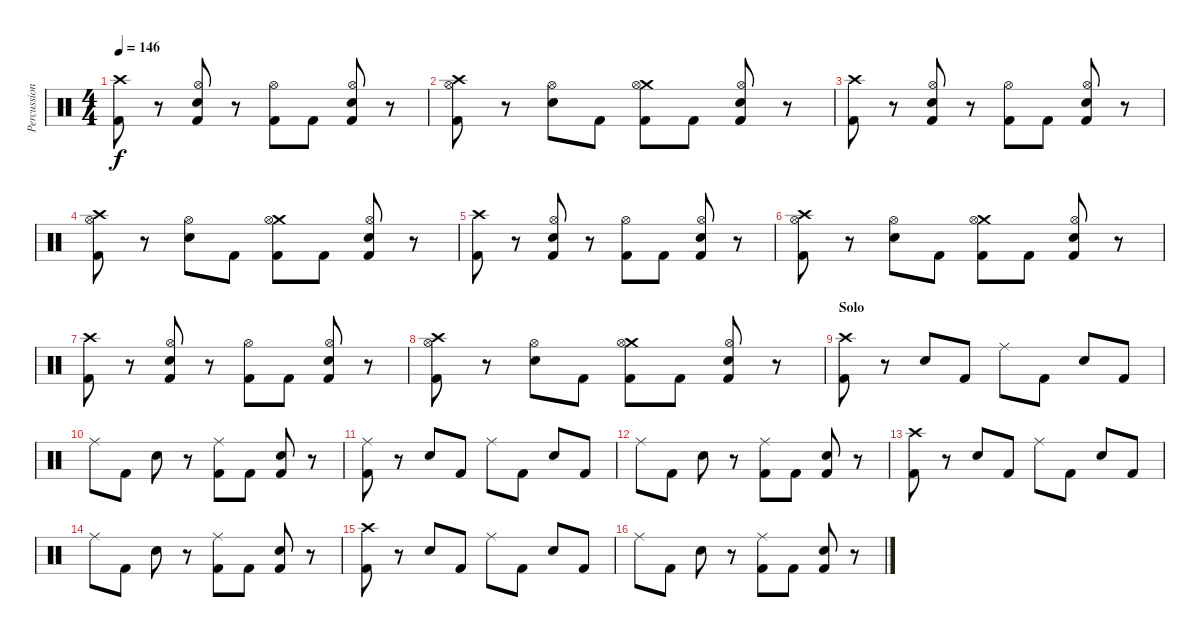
\track ("Percussion" "Percussion") {instrument percussion}
\staff {score}
\articulation defaults
\ts (4 4)
\tempo 146
\clef neutral
\ks c
("Crash high (hit)" "Kick (hit) 2").8{dy f} r.8 ("Hi-Hat (open)" "Electric Snare (hit)" "Kick (hit) 2").8 r.8 ("Hi-Hat (open)" "Kick (hit) 2").8 "Kick (hit) 2".8 ("Hi-Hat (open)" "Electric Snare (hit)" "Kick (hit) 2").8 r.8 |
("Crash high (hit)" "Hi-Hat (open)" "Kick (hit) 2").8 r.8 ("Hi-Hat (open)" "Electric Snare (hit)").8 "Kick (hit) 2".8 ("Crash medium (hit)" "Hi-Hat (open)" "Kick (hit) 2").8 "Kick (hit) 2".8 ("Hi-Hat (open)" "Electric Snare (hit)" "Kick (hit) 2").8 r.8 |
("Crash high (hit)" "Kick (hit) 2").8 r.8 ("Hi-Hat (open)" "Electric Snare (hit)" "Kick (hit) 2").8 r.8 ("Hi-Hat (open)" "Kick (hit) 2").8 "Kick (hit) 2".8 ("Hi-Hat (open)" "Electric Snare (hit)" "Kick (hit) 2").8 r.8 |
("Crash high (hit)" "Hi-Hat (open)" "Kick (hit) 2").8 r.8 ("Hi-Hat (open)" "Electric Snare (hit)").8 "Kick (hit) 2".8 ("Crash medium (hit)" "Hi-Hat (open)" "Kick (hit) 2").8 "Kick (hit) 2".8 ("Hi-Hat (open)" "Electric Snare (hit)" "Kick (hit) 2").8 r.8 |
("Crash high (hit)" "Kick (hit) 2").8 r.8 ("Hi-Hat (open)" "Electric Snare (hit)" "Kick (hit) 2").8 r.8 ("Hi-Hat (open)" "Kick (hit) 2").8 "Kick (hit) 2".8 ("Hi-Hat (open)" "Electric Snare (hit)" "Kick (hit) 2").8 r.8 |
("Crash high (hit)" "Hi-Hat (open)" "Kick (hit) 2").8 r.8 ("Hi-Hat (open)" "Electric Snare (hit)").8 "Kick (hit) 2".8 ("Crash medium (hit)" "Hi-Hat (open)" "Kick (hit) 2").8 "Kick (hit) 2".8 ("Hi-Hat (open)" "Electric Snare (hit)" "Kick (hit) 2").8 r.8 |
("Crash high (hit)" "Kick (hit) 2").8 r.8 ("Hi-Hat (open)" "Electric Snare (hit)" "Kick (hit) 2").8 r.8 ("Hi-Hat (open)" "Kick (hit) 2").8 "Kick (hit) 2".8 ("Hi-Hat (open)" "Electric Snare (hit)" "Kick (hit) 2").8 r.8 |
("Crash high (hit)" "Hi-Hat (open)" "Kick (hit) 2").8 r.8 ("Hi-Hat (open)" "Electric Snare (hit)").8 "Kick (hit) 2".8 ("Crash medium (hit)" "Hi-Hat (open)" "Kick (hit) 2").8 "Kick (hit) 2".8 ("Hi-Hat (open)" "Electric Snare (hit)" "Kick (hit) 2").8 r.8 |
\section ("" "Solo")
("Crash high (hit)" "Kick (hit) 2").8 r.8 "Electric Snare (hit)".8 "Kick (hit) 2".8 "Ride (middle)".8 "Kick (hit) 2".8 "Electric Snare (hit)".8 "Kick (hit) 2".8 |
"Ride (middle)".8 "Kick (hit) 2".8 "Electric Snare (hit)".8 r.8 ("Ride (middle)" "Kick (hit) 2").8 "Kick (hit) 2".8 ("Electric Snare (hit)" "Kick (hit) 2").8 r.8 |
("Ride (middle)" "Kick (hit) 2").8 r.8 "Electric Snare (hit)".8 "Kick (hit) 2".8 "Ride (middle)".8 "Kick (hit) 2".8 "Electric Snare (hit)".8 "Kick (hit) 2".8 |
"Ride (middle)".8 "Kick (hit) 2".8 "Electric Snare (hit)".8 r.8 ("Ride (middle)" "Kick (hit) 2").8 "Kick (hit) 2".8 ("Electric Snare (hit)" "Kick (hit) 2").8 r.8 |
("Crash high (hit)" "Kick (hit) 2").8 r.8 "Electric Snare (hit)".8 "Kick (hit) 2".8 "Ride (middle)".8 "Kick (hit) 2".8 "Electric Snare (hit)".8 "Kick (hit) 2".8 |
"Ride (middle)".8 "Kick (hit) 2".8 "Electric Snare (hit)".8 r.8 ("Ride (middle)" "Kick (hit) 2").8 "Kick (hit) 2".8 ("Electric Snare (hit)" "Kick (hit) 2").8 r.8 |
("Crash high (hit)" "Kick (hit) 2").8 r.8 "Electric Snare (hit)".8 "Kick (hit) 2".8 "Ride (middle)".8 "Kick (hit) 2".8 "Electric Snare (hit)".8 "Kick (hit) 2".8 |
"Ride (middle)".8 "Kick (hit) 2".8 "Electric Snare (hit)".8 r.8 ("Ride (middle)" "Kick (hit) 2").8 "Kick (hit) 2".8 ("Electric Snare (hit)" "Kick (hit) 2").8 r.8
